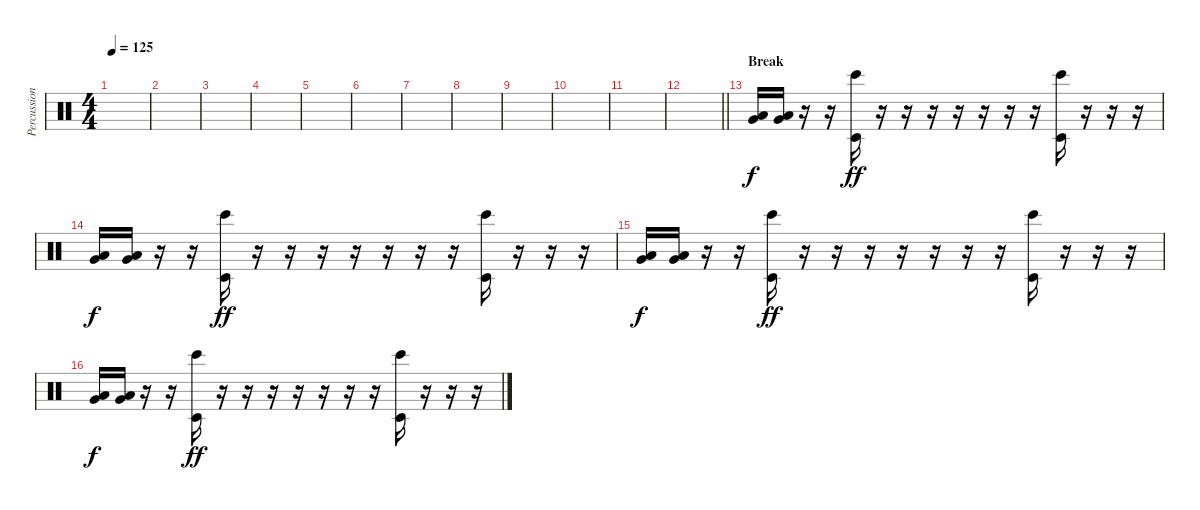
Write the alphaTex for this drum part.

\track ("Percussions" "Percussion") {instrument percussion}
\staff {score}
\articulation defaults
\ts (4 4)
\tempo 125
\clef neutral
\ks c
|
|
|
|
|
|
|
|
|
|
|
\barLineRight lightlight
|
\section ("" "Break")
("Low Floor Tom (hit)" "Very Low Tom (hit)").16 ("Low Floor Tom (hit)" "Very Low Tom (hit)").16 r.16 r.16 ("Timbale low (hit)" "Bongo High (hit)").16{dy ff} r.16 r.16 r.16 r.16 r.16 r.16 r.16 ("Timbale low (hit)" "Bongo High (hit)").16 r.16 r.16 r.16 |
("Low Floor Tom (hit)" "Very Low Tom (hit)").16{dy f} ("Low Floor Tom (hit)" "Very Low Tom (hit)").16 r.16 r.16 ("Timbale low (hit)" "Bongo High (hit)").16{dy ff} r.16 r.16 r.16 r.16 r.16 r.16 r.16 ("Timbale low (hit)" "Bongo High (hit)").16 r.16 r.16 r.16 |
("Low Floor Tom (hit)" "Very Low Tom (hit)").16{dy f} ("Low Floor Tom (hit)" "Very Low Tom (hit)").16 r.16 r.16 ("Timbale low (hit)" "Bongo High (hit)").16{dy ff} r.16 r.16 r.16 r.16 r.16 r.16 r.16 ("Timbale low (hit)" "Bongo High (hit)").16 r.16 r.16 r.16 |
("Low Floor Tom (hit)" "Very Low Tom (hit)").16{dy f} ("Low Floor Tom (hit)" "Very Low Tom (hit)").16 r.16 r.16 ("Timbale low (hit)" "Bongo High (hit)").16{dy ff} r.16 r.16 r.16 r.16 r.16 r.16 r.16 ("Timbale low (hit)" "Bongo High (hit)").16 r.16 r.16 r.16
